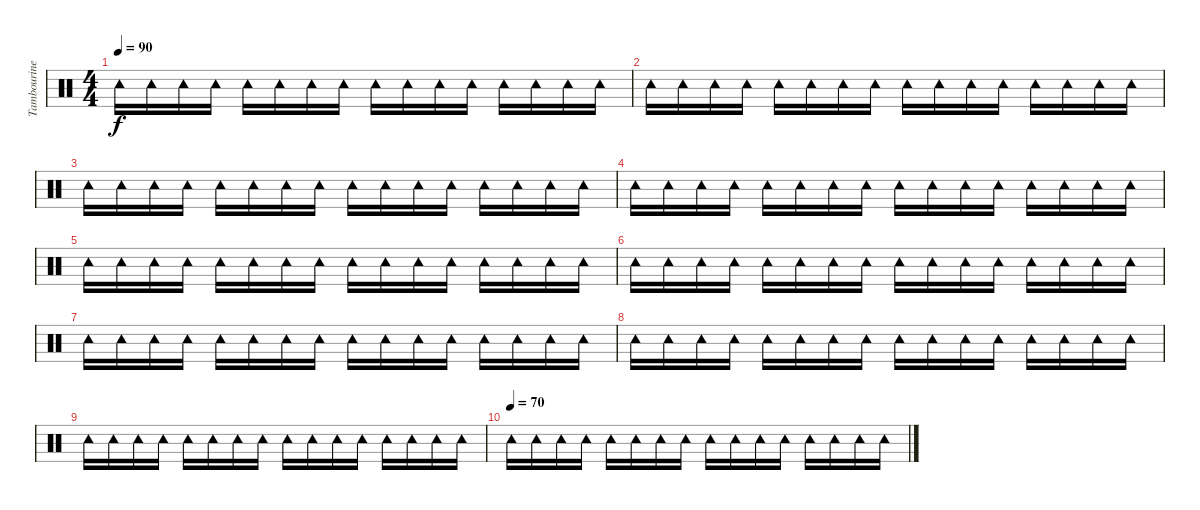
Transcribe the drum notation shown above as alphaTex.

\track ("Tambourine" "Tambourine") {instrument percussion}
\staff {score}
\articulation defaults
\ts (4 4)
\tempo 90
\clef neutral
\ks c "Tambourine (hit)".16{dy f} "Tambourine (hit)".16 "Tambourine (hit)".16 "Tambourine (hit)".16 "Tambourine (hit)".16 "Tambourine (hit)".16 "Tambourine (hit)".16 "Tambourine (hit)".16 "Tambourine (hit)".16 "Tambourine (hit)".16 "Tambourine (hit)".16 "Tambourine (hit)".16 "Tambourine (hit)".16 "Tambourine (hit)".16 "Tambourine (hit)".16 "Tambourine (hit)".16
|
"Tambourine (hit)".16 "Tambourine (hit)".16 "Tambourine (hit)".16 "Tambourine (hit)".16 "Tambourine (hit)".16 "Tambourine (hit)".16 "Tambourine (hit)".16 "Tambourine (hit)".16 "Tambourine (hit)".16 "Tambourine (hit)".16 "Tambourine (hit)".16 "Tambourine (hit)".16 "Tambourine (hit)".16 "Tambourine (hit)".16 "Tambourine (hit)".16 "Tambourine (hit)".16 |
"Tambourine (hit)".16 "Tambourine (hit)".16 "Tambourine (hit)".16 "Tambourine (hit)".16 "Tambourine (hit)".16 "Tambourine (hit)".16 "Tambourine (hit)".16 "Tambourine (hit)".16 "Tambourine (hit)".16 "Tambourine (hit)".16 "Tambourine (hit)".16 "Tambourine (hit)".16 "Tambourine (hit)".16 "Tambourine (hit)".16 "Tambourine (hit)".16 "Tambourine (hit)".16 |
"Tambourine (hit)".16 "Tambourine (hit)".16 "Tambourine (hit)".16 "Tambourine (hit)".16 "Tambourine (hit)".16 "Tambourine (hit)".16 "Tambourine (hit)".16 "Tambourine (hit)".16 "Tambourine (hit)".16 "Tambourine (hit)".16 "Tambourine (hit)".16 "Tambourine (hit)".16 "Tambourine (hit)".16 "Tambourine (hit)".16 "Tambourine (hit)".16 "Tambourine (hit)".16 |
"Tambourine (hit)".16 "Tambourine (hit)".16 "Tambourine (hit)".16 "Tambourine (hit)".16 "Tambourine (hit)".16 "Tambourine (hit)".16 "Tambourine (hit)".16 "Tambourine (hit)".16 "Tambourine (hit)".16 "Tambourine (hit)".16 "Tambourine (hit)".16 "Tambourine (hit)".16 "Tambourine (hit)".16 "Tambourine (hit)".16 "Tambourine (hit)".16 "Tambourine (hit)".16 |
"Tambourine (hit)".16 "Tambourine (hit)".16 "Tambourine (hit)".16 "Tambourine (hit)".16 "Tambourine (hit)".16 "Tambourine (hit)".16 "Tambourine (hit)".16 "Tambourine (hit)".16 "Tambourine (hit)".16 "Tambourine (hit)".16 "Tambourine (hit)".16 "Tambourine (hit)".16 "Tambourine (hit)".16 "Tambourine (hit)".16 "Tambourine (hit)".16 "Tambourine (hit)".16 |
"Tambourine (hit)".16 "Tambourine (hit)".16 "Tambourine (hit)".16 "Tambourine (hit)".16 "Tambourine (hit)".16 "Tambourine (hit)".16 "Tambourine (hit)".16 "Tambourine (hit)".16 "Tambourine (hit)".16 "Tambourine (hit)".16 "Tambourine (hit)".16 "Tambourine (hit)".16 "Tambourine (hit)".16 "Tambourine (hit)".16 "Tambourine (hit)".16 "Tambourine (hit)".16 |
"Tambourine (hit)".16 "Tambourine (hit)".16 "Tambourine (hit)".16 "Tambourine (hit)".16 "Tambourine (hit)".16 "Tambourine (hit)".16 "Tambourine (hit)".16 "Tambourine (hit)".16 "Tambourine (hit)".16 "Tambourine (hit)".16 "Tambourine (hit)".16 "Tambourine (hit)".16 "Tambourine (hit)".16 "Tambourine (hit)".16 "Tambourine (hit)".16 "Tambourine (hit)".16 |
"Tambourine (hit)".16 "Tambourine (hit)".16 "Tambourine (hit)".16 "Tambourine (hit)".16 "Tambourine (hit)".16 "Tambourine (hit)".16 "Tambourine (hit)".16 "Tambourine (hit)".16 "Tambourine (hit)".16 "Tambourine (hit)".16 "Tambourine (hit)".16 "Tambourine (hit)".16 "Tambourine (hit)".16 "Tambourine (hit)".16 "Tambourine (hit)".16 "Tambourine (hit)".16 |
\tempo (70)
"Tambourine (hit)".16 "Tambourine (hit)".16 "Tambourine (hit)".16 "Tambourine (hit)".16 "Tambourine (hit)".16 "Tambourine (hit)".16 "Tambourine (hit)".16 "Tambourine (hit)".16 "Tambourine (hit)".16 "Tambourine (hit)".16 "Tambourine (hit)".16 "Tambourine (hit)".16 "Tambourine (hit)".16 "Tambourine (hit)".16 "Tambourine (hit)".16 "Tambourine (hit)".16
